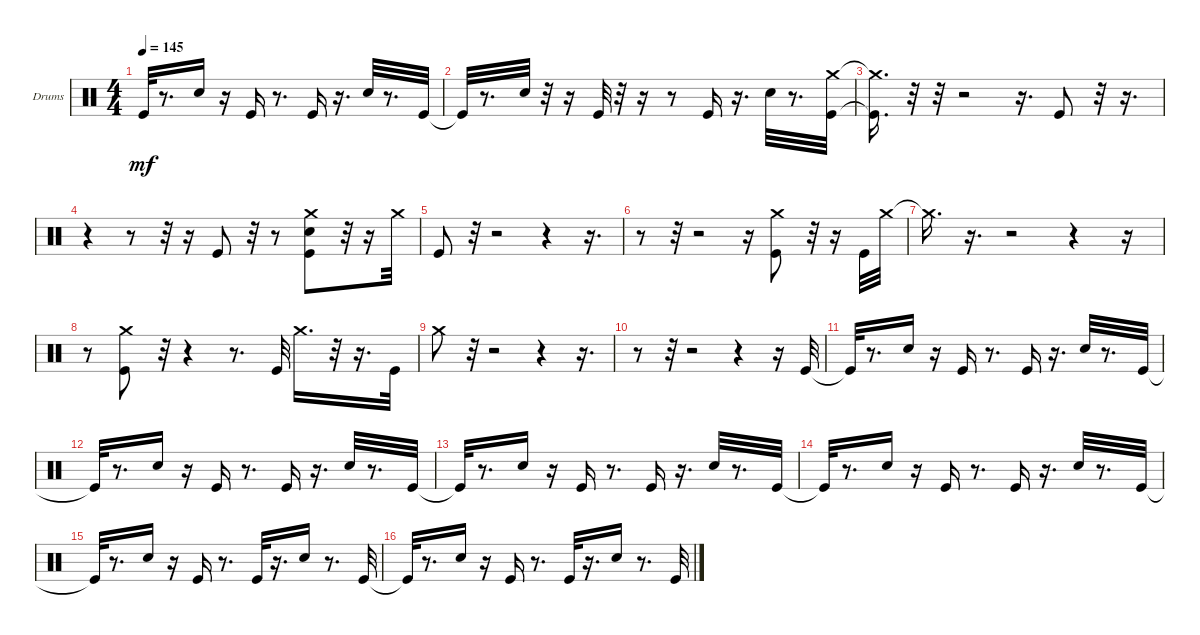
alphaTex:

\bracketExtendMode groupsimilarinstruments
\firstSystemTrackNameOrientation horizontal
\otherSystemsTrackNameOrientation horizontal
\track ("Drums" "Drums") {instrument percussion}
\staff {score}
\articulation defaults
\ts (4 4)
\tempo 145
\clef neutral
\ks c "Kick (hit)"{t}.32{dy mf}
r.8{d} "Snare (hit) 2".16 r.16 "Kick (hit)".16 r.8{d} "Kick (hit)".16 r.16{d} "Snare (hit) 2".32 r.8{d} "Kick (hit)".32 |
"Kick (hit)"{t}.32 r.8{d} "Snare (hit) 2".32 r.32 r.16 "Kick (hit)".32 r.32 r.16 r.8 "Kick (hit)".16 r.16{d} "Snare (hit) 2".32 r.8{d} ("Kick (hit)" "Crash medium (hit)").32 |
("Kick (hit)"{t} "Crash medium (hit)"{t}).16{d} r.32 r.32 r.2 r.16{d} "Kick (hit)".8 r.32 r.16{d} |
r.4 r.8 r.32 r.16 "Kick (hit)".8 r.32 r.8 ("Kick (hit)" "Crash medium (hit)" "Snare (hit) 2").8 r.32 r.16 "Crash medium (hit)".32 |
"Kick (hit)".8 r.32 r.2 r.4 r.16{d} |
r.8 r.32 r.2 r.16 ("Kick (hit)" "Crash medium (hit)").8 r.32 r.16 "Kick (hit)".32 "Crash medium (hit)".32 |
"Crash medium (hit)"{t}.16{d} r.16{d} r.2 r.4 r.16 |
r.8 ("Kick (hit)" "Crash medium (hit)").8 r.32 r.4 r.8{d} "Kick (hit)".32 "Crash medium (hit)".16{d} r.32 r.16{d} "Kick (hit)".32 |
"Crash medium (hit)".8 r.32 r.2 r.4 r.16{d} |
r.8 r.32 r.2 r.4 r.16 "Kick (hit)".32 |
"Kick (hit)"{t}.32 r.8{d} "Snare (hit) 2".16 r.16 "Kick (hit)".16 r.8{d} "Kick (hit)".16 r.16{d} "Snare (hit) 2".32 r.8{d} "Kick (hit)".32 |
"Kick (hit)"{t}.32 r.8{d} "Snare (hit) 2".16 r.16 "Kick (hit)".16 r.8{d} "Kick (hit)".16 r.16{d} "Snare (hit) 2".32 r.8{d} "Kick (hit)".32 |
"Kick (hit)"{t}.32 r.8{d} "Snare (hit) 2".16 r.16 "Kick (hit)".16 r.8{d} "Kick (hit)".16 r.16{d} "Snare (hit) 2".32 r.8{d} "Kick (hit)".32 |
"Kick (hit)"{t}.32 r.8{d} "Snare (hit) 2".16 r.16 "Kick (hit)".16 r.8{d} "Kick (hit)".16 r.16{d} "Snare (hit) 2".32 r.8{d} "Kick (hit)".32 |
"Kick (hit)"{t}.32 r.8{d} "Snare (hit) 2".16 r.16 "Kick (hit)".16 r.8{d} "Kick (hit)".32 r.16{d} "Snare (hit) 2".16 r.8{d} "Kick (hit)".32 |
"Kick (hit)"{t}.32 r.8{d} "Snare (hit) 2".16 r.16 "Kick (hit)".16 r.8{d} "Kick (hit)".32 r.16{d} "Snare (hit) 2".16 r.8{d} "Kick (hit)".32
